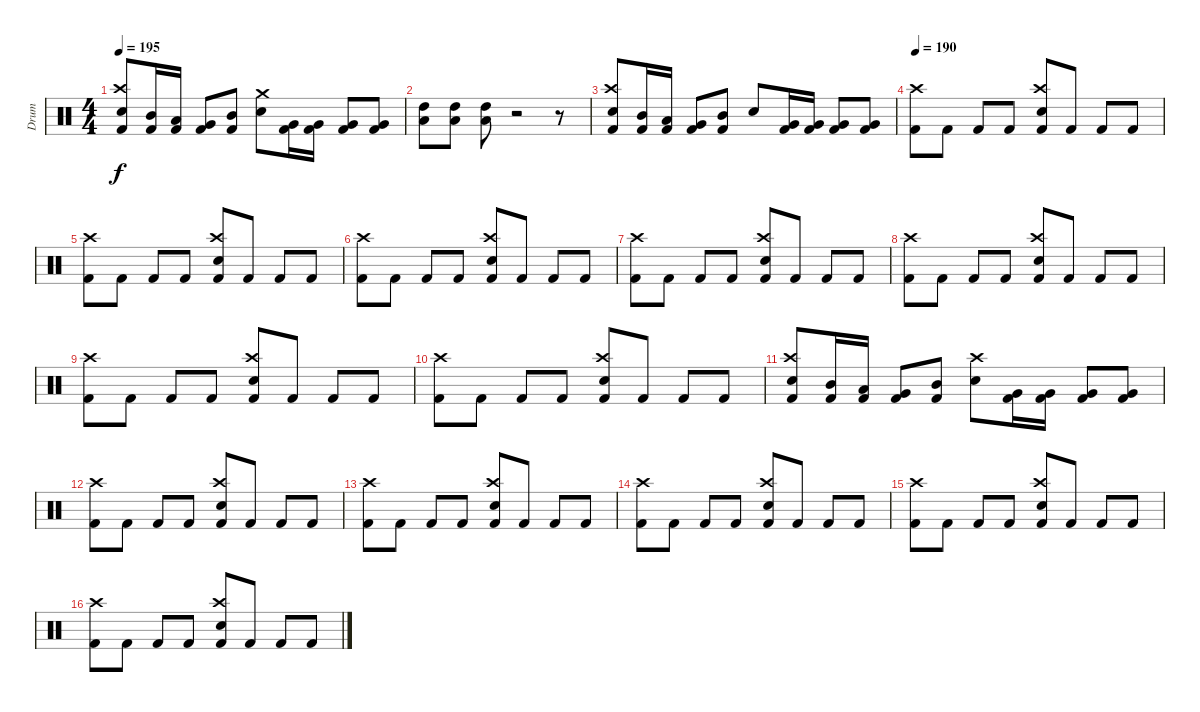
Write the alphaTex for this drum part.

\track ("Drum" "Drum") {instrument percussion}
\staff {score}
\articulation defaults
\ts (4 4)
\tempo 195
\clef neutral
\ks c
("Electric Snare (hit)" "Crash high (hit)" "Kick (hit) 2").8{dy f} ("Mid Tom (hit)" "Kick (hit) 2").16 ("Low Tom (hit)" "Kick (hit) 2").16 ("Very Low Tom (hit)" "Kick (hit) 2").8 ("Mid Tom (hit)" "Kick (hit) 2").8 ("Electric Snare (hit)" "Crash medium (hit)").8 ("Very Low Tom (hit)" "Kick (hit) 2").16 ("Very Low Tom (hit)" "Kick (hit) 2").16 ("Very Low Tom (hit)" "Kick (hit) 2").8 ("Very Low Tom (hit)" "Kick (hit) 2").8 |
("High Tom (hit)" "Low Tom (hit)").8 ("High Tom (hit)" "Low Tom (hit)").8 ("High Tom (hit)" "Low Tom (hit)").8 r.2 r.8 |
("Electric Snare (hit)" "Crash high (hit)" "Kick (hit) 2").8 ("Mid Tom (hit)" "Kick (hit) 2").16 ("Low Tom (hit)" "Kick (hit) 2").16 ("Very Low Tom (hit)" "Kick (hit) 2").8 ("Mid Tom (hit)" "Kick (hit) 2").8 "Electric Snare (hit)".8 ("Very Low Tom (hit)" "Kick (hit) 2").16 ("Very Low Tom (hit)" "Kick (hit) 2").16 ("Very Low Tom (hit)" "Kick (hit) 2").8 ("Very Low Tom (hit)" "Kick (hit) 2").8 |
\tempo 190
("Kick (hit) 2" "Crash high (hit)").8 "Kick (hit) 2".8 "Kick (hit) 2".8 "Kick (hit) 2".8 ("Kick (hit) 2" "Electric Snare (hit)" "Crash high (hit)").8 "Kick (hit) 2".8 "Kick (hit) 2".8 "Kick (hit) 2".8 |
("Kick (hit) 2" "Crash high (hit)").8 "Kick (hit) 2".8 "Kick (hit) 2".8 "Kick (hit) 2".8 ("Kick (hit) 2" "Electric Snare (hit)" "Crash high (hit)").8 "Kick (hit) 2".8 "Kick (hit) 2".8 "Kick (hit) 2".8 |
("Kick (hit) 2" "Crash high (hit)").8 "Kick (hit) 2".8 "Kick (hit) 2".8 "Kick (hit) 2".8 ("Kick (hit) 2" "Electric Snare (hit)" "Crash high (hit)").8 "Kick (hit) 2".8 "Kick (hit) 2".8 "Kick (hit) 2".8 |
("Kick (hit) 2" "Crash high (hit)").8 "Kick (hit) 2".8 "Kick (hit) 2".8 "Kick (hit) 2".8 ("Kick (hit) 2" "Electric Snare (hit)" "Crash high (hit)").8 "Kick (hit) 2".8 "Kick (hit) 2".8 "Kick (hit) 2".8 |
("Kick (hit) 2" "Crash high (hit)").8 "Kick (hit) 2".8 "Kick (hit) 2".8 "Kick (hit) 2".8 ("Kick (hit) 2" "Electric Snare (hit)" "Crash high (hit)").8 "Kick (hit) 2".8 "Kick (hit) 2".8 "Kick (hit) 2".8 |
("Kick (hit) 2" "Crash high (hit)").8 "Kick (hit) 2".8 "Kick (hit) 2".8 "Kick (hit) 2".8 ("Kick (hit) 2" "Electric Snare (hit)" "Crash high (hit)").8 "Kick (hit) 2".8 "Kick (hit) 2".8 "Kick (hit) 2".8 |
("Kick (hit) 2" "Crash high (hit)").8 "Kick (hit) 2".8 "Kick (hit) 2".8 "Kick (hit) 2".8 ("Kick (hit) 2" "Electric Snare (hit)" "Crash high (hit)").8 "Kick (hit) 2".8 "Kick (hit) 2".8 "Kick (hit) 2".8 |
("Electric Snare (hit)" "Crash high (hit)" "Kick (hit) 2").8 ("Mid Tom (hit)" "Kick (hit) 2").16 ("Low Tom (hit)" "Kick (hit) 2").16 ("Very Low Tom (hit)" "Kick (hit) 2").8 ("Mid Tom (hit)" "Kick (hit) 2").8 ("Electric Snare (hit)" "Crash high (hit)").8 ("Very Low Tom (hit)" "Kick (hit) 2").16 ("Very Low Tom (hit)" "Kick (hit) 2").16 ("Very Low Tom (hit)" "Kick (hit) 2").8 ("Very Low Tom (hit)" "Kick (hit) 2").8 |
("Kick (hit) 2" "Crash high (hit)").8 "Kick (hit) 2".8 "Kick (hit) 2".8 "Kick (hit) 2".8 ("Kick (hit) 2" "Electric Snare (hit)" "Crash high (hit)").8 "Kick (hit) 2".8 "Kick (hit) 2".8 "Kick (hit) 2".8 |
("Kick (hit) 2" "Crash high (hit)").8 "Kick (hit) 2".8 "Kick (hit) 2".8 "Kick (hit) 2".8 ("Kick (hit) 2" "Electric Snare (hit)" "Crash high (hit)").8 "Kick (hit) 2".8 "Kick (hit) 2".8 "Kick (hit) 2".8 |
("Kick (hit) 2" "Crash high (hit)").8 "Kick (hit) 2".8 "Kick (hit) 2".8 "Kick (hit) 2".8 ("Kick (hit) 2" "Electric Snare (hit)" "Crash high (hit)").8 "Kick (hit) 2".8 "Kick (hit) 2".8 "Kick (hit) 2".8 |
("Kick (hit) 2" "Crash high (hit)").8 "Kick (hit) 2".8 "Kick (hit) 2".8 "Kick (hit) 2".8 ("Kick (hit) 2" "Electric Snare (hit)" "Crash high (hit)").8 "Kick (hit) 2".8 "Kick (hit) 2".8 "Kick (hit) 2".8 |
("Kick (hit) 2" "Crash high (hit)").8 "Kick (hit) 2".8 "Kick (hit) 2".8 "Kick (hit) 2".8 ("Kick (hit) 2" "Electric Snare (hit)" "Crash high (hit)").8 "Kick (hit) 2".8 "Kick (hit) 2".8 "Kick (hit) 2".8
